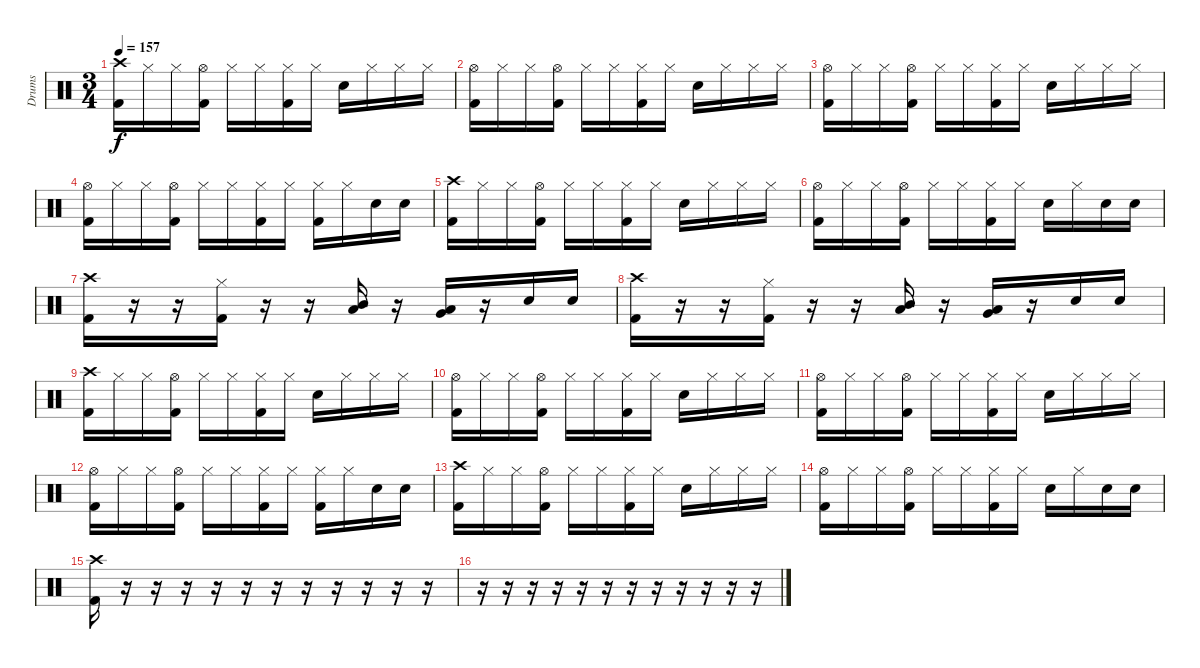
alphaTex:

\track ("Drums" "Drums") {instrument percussion}
\staff {score}
\articulation defaults
\ts (3 4)
\tempo 157
\clef neutral
\ks c
("Crash high (hit)" "Kick (hit) 2").16{dy f} "Hi-Hat (closed)".16 "Hi-Hat (closed)".16 ("Hi-Hat (open)" "Kick (hit) 2").16 "Hi-Hat (closed)".16 "Hi-Hat (closed)".16 ("Hi-Hat (closed)" "Kick (hit) 2").16 "Hi-Hat (closed)".16 "Snare (hit) 2".16 "Hi-Hat (closed)".16 "Hi-Hat (closed)".16 "Hi-Hat (closed)".16 |
("Hi-Hat (open)" "Kick (hit) 2").16 "Hi-Hat (closed)".16 "Hi-Hat (closed)".16 ("Hi-Hat (open)" "Kick (hit) 2").16 "Hi-Hat (closed)".16 "Hi-Hat (closed)".16 ("Hi-Hat (closed)" "Kick (hit) 2").16 "Hi-Hat (closed)".16 "Snare (hit) 2".16 "Hi-Hat (closed)".16 "Hi-Hat (closed)".16 "Hi-Hat (closed)".16 |
("Hi-Hat (open)" "Kick (hit) 2").16 "Hi-Hat (closed)".16 "Hi-Hat (closed)".16 ("Hi-Hat (open)" "Kick (hit) 2").16 "Hi-Hat (closed)".16 "Hi-Hat (closed)".16 ("Hi-Hat (closed)" "Kick (hit) 2").16 "Hi-Hat (closed)".16 "Snare (hit) 2".16 "Hi-Hat (closed)".16 "Hi-Hat (closed)".16 "Hi-Hat (closed)".16 |
("Hi-Hat (open)" "Kick (hit) 2").16 "Hi-Hat (closed)".16 "Hi-Hat (closed)".16 ("Hi-Hat (open)" "Kick (hit) 2").16 "Hi-Hat (closed)".16 "Hi-Hat (closed)".16 ("Hi-Hat (closed)" "Kick (hit) 2").16 "Hi-Hat (closed)".16 ("Hi-Hat (closed)" "Kick (hit) 2").16 "Hi-Hat (closed)".16 "Snare (hit) 2".16 "Snare (hit) 2".16 |
("Crash high (hit)" "Kick (hit) 2").16 "Hi-Hat (closed)".16 "Hi-Hat (closed)".16 ("Hi-Hat (open)" "Kick (hit) 2").16 "Hi-Hat (closed)".16 "Hi-Hat (closed)".16 ("Hi-Hat (closed)" "Kick (hit) 2").16 "Hi-Hat (closed)".16 "Snare (hit) 2".16 "Hi-Hat (closed)".16 "Hi-Hat (closed)".16 "Hi-Hat (closed)".16 |
("Hi-Hat (open)" "Kick (hit) 2").16 "Hi-Hat (closed)".16 "Hi-Hat (closed)".16 ("Hi-Hat (open)" "Kick (hit) 2").16 "Hi-Hat (closed)".16 "Hi-Hat (closed)".16 ("Hi-Hat (closed)" "Kick (hit) 2").16 "Hi-Hat (closed)".16 "Snare (hit) 2".16 "Hi-Hat (closed)".16 "Snare (hit) 2".16 "Snare (hit) 2".16 |
("Crash high (hit)" "Kick (hit) 2").16 r.16 r.16 ("Hi-Hat (closed)" "Kick (hit) 2").16 r.16 r.16 ("Low Tom (hit)" "Mid Tom (hit)").16 r.16 ("Low Tom (hit)" "Very Low Tom (hit)").16 r.16 "Snare (hit) 2".16 "Snare (hit) 2".16 |
("Crash high (hit)" "Kick (hit) 2").16 r.16 r.16 ("Hi-Hat (closed)" "Kick (hit) 2").16 r.16 r.16 ("Low Tom (hit)" "Mid Tom (hit)").16 r.16 ("Low Tom (hit)" "Very Low Tom (hit)").16 r.16 "Snare (hit) 2".16 "Snare (hit) 2".16 |
("Crash high (hit)" "Kick (hit) 2").16 "Hi-Hat (closed)".16 "Hi-Hat (closed)".16 ("Hi-Hat (open)" "Kick (hit) 2").16 "Hi-Hat (closed)".16 "Hi-Hat (closed)".16 ("Hi-Hat (closed)" "Kick (hit) 2").16 "Hi-Hat (closed)".16 "Snare (hit) 2".16 "Hi-Hat (closed)".16 "Hi-Hat (closed)".16 "Hi-Hat (closed)".16 |
("Hi-Hat (open)" "Kick (hit) 2").16 "Hi-Hat (closed)".16 "Hi-Hat (closed)".16 ("Hi-Hat (open)" "Kick (hit) 2").16 "Hi-Hat (closed)".16 "Hi-Hat (closed)".16 ("Hi-Hat (closed)" "Kick (hit) 2").16 "Hi-Hat (closed)".16 "Snare (hit) 2".16 "Hi-Hat (closed)".16 "Hi-Hat (closed)".16 "Hi-Hat (closed)".16 |
("Hi-Hat (open)" "Kick (hit) 2").16 "Hi-Hat (closed)".16 "Hi-Hat (closed)".16 ("Hi-Hat (open)" "Kick (hit) 2").16 "Hi-Hat (closed)".16 "Hi-Hat (closed)".16 ("Hi-Hat (closed)" "Kick (hit) 2").16 "Hi-Hat (closed)".16 "Snare (hit) 2".16 "Hi-Hat (closed)".16 "Hi-Hat (closed)".16 "Hi-Hat (closed)".16 |
("Hi-Hat (open)" "Kick (hit) 2").16 "Hi-Hat (closed)".16 "Hi-Hat (closed)".16 ("Hi-Hat (open)" "Kick (hit) 2").16 "Hi-Hat (closed)".16 "Hi-Hat (closed)".16 ("Hi-Hat (closed)" "Kick (hit) 2").16 "Hi-Hat (closed)".16 ("Hi-Hat (closed)" "Kick (hit) 2").16 "Hi-Hat (closed)".16 "Snare (hit) 2".16 "Snare (hit) 2".16 |
("Crash high (hit)" "Kick (hit) 2").16 "Hi-Hat (closed)".16 "Hi-Hat (closed)".16 ("Hi-Hat (open)" "Kick (hit) 2").16 "Hi-Hat (closed)".16 "Hi-Hat (closed)".16 ("Hi-Hat (closed)" "Kick (hit) 2").16 "Hi-Hat (closed)".16 "Snare (hit) 2".16 "Hi-Hat (closed)".16 "Hi-Hat (closed)".16 "Hi-Hat (closed)".16 |
("Hi-Hat (open)" "Kick (hit) 2").16 "Hi-Hat (closed)".16 "Hi-Hat (closed)".16 ("Hi-Hat (open)" "Kick (hit) 2").16 "Hi-Hat (closed)".16 "Hi-Hat (closed)".16 ("Hi-Hat (closed)" "Kick (hit) 2").16 "Hi-Hat (closed)".16 "Snare (hit) 2".16 "Hi-Hat (closed)".16 "Snare (hit) 2".16 "Snare (hit) 2".16 |
("Crash high (hit)" "Kick (hit) 2").16 r.16 r.16 r.16 r.16 r.16 r.16 r.16 r.16 r.16 r.16 r.16 |
r.16 r.16 r.16 r.16 r.16 r.16 r.16 r.16 r.16 r.16 r.16 r.16
